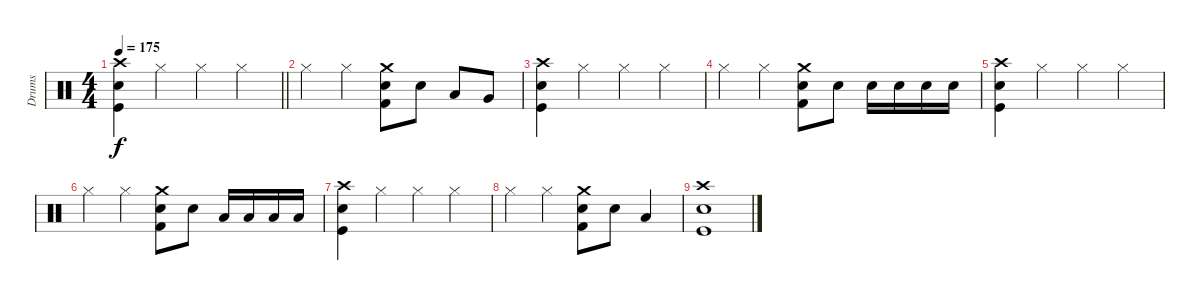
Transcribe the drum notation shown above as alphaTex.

\track ("Drums" "Drums") {instrument percussion}
\staff {score}
\articulation defaults
\ts (4 4)
\tempo 175
\clef neutral
\barLineRight lightlight
\ks c
("Kick (hit)" "Snare (hit) 2" "Crash high (hit)").4{dy f} "Hi-Hat (closed)".4 "Hi-Hat (closed)".4 "Hi-Hat (closed)".4 |
"Hi-Hat (closed)".4 "Hi-Hat (closed)".4 ("Kick (hit) 2" "Snare (hit) 2" "Crash medium (hit)").8 "Snare (hit) 2".8 "Low Tom (hit)".8 "Very Low Tom (hit)".8 |
("Kick (hit)" "Snare (hit) 2" "Crash high (hit)").4 "Hi-Hat (closed)".4 "Hi-Hat (closed)".4 "Hi-Hat (closed)".4 |
"Hi-Hat (closed)".4 "Hi-Hat (closed)".4 ("Kick (hit) 2" "Snare (hit) 2" "Crash medium (hit)").8 "Snare (hit) 2".8 "Snare (hit) 2".16 "Snare (hit) 2".16 "Snare (hit) 2".16 "Snare (hit) 2".16 |
("Kick (hit)" "Snare (hit) 2" "Crash high (hit)").4 "Hi-Hat (closed)".4 "Hi-Hat (closed)".4 "Hi-Hat (closed)".4 |
"Hi-Hat (closed)".4 "Hi-Hat (closed)".4 ("Kick (hit) 2" "Snare (hit) 2" "Crash medium (hit)").8 "Snare (hit) 2".8 "Low Tom (hit)".16 "Low Tom (hit)".16 "Low Tom (hit)".16 "Low Tom (hit)".16 |
("Kick (hit)" "Snare (hit) 2" "Crash high (hit)").4 "Hi-Hat (closed)".4 "Hi-Hat (closed)".4 "Hi-Hat (closed)".4 |
"Hi-Hat (closed)".4 "Hi-Hat (closed)".4 ("Kick (hit) 2" "Snare (hit) 2" "Crash medium (hit)").8 "Snare (hit) 2".8 "Low Tom (hit)".4 |
("Kick (hit)" "Snare (hit) 2" "Crash high (hit)").1
